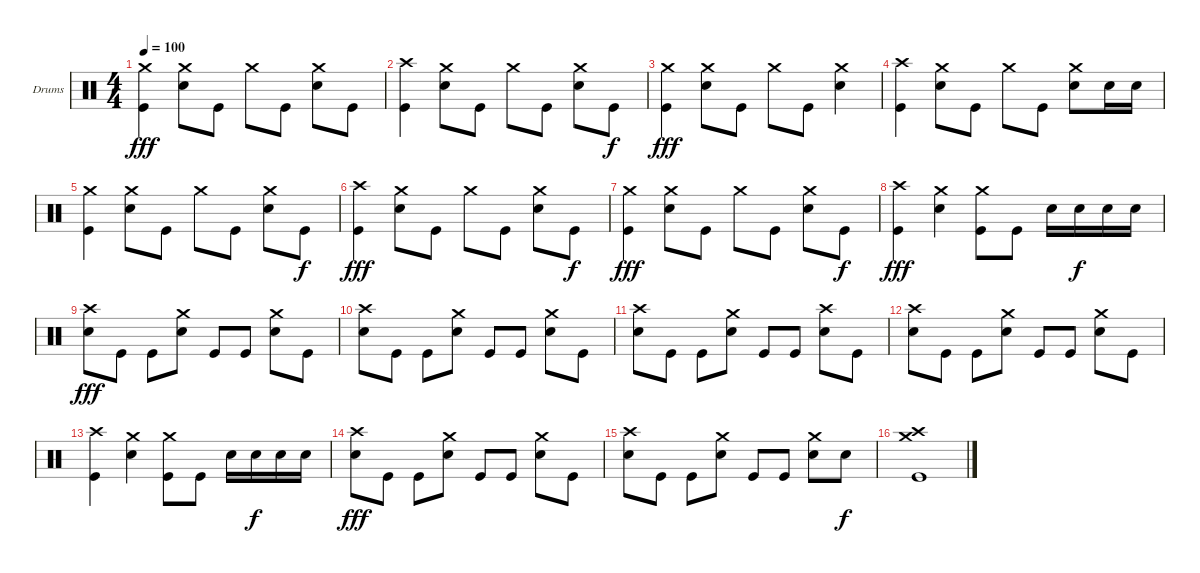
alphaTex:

\defaultSystemsLayout 4
\bracketExtendMode groupsimilarinstruments
\firstSystemTrackNameOrientation horizontal
\otherSystemsTrackNameOrientation horizontal
\track ("Drumkit" "Drums") {instrument percussion}
\staff {score}
\articulation defaults
\ts (4 4)
\tempo 100
\clef neutral
\ks c
("Crash medium (hit)" "Kick (hit)").4{dy fff} ("Crash medium (hit)" "Snare (hit) 2").8 "Kick (hit)".8 "Crash medium (hit)".8 "Kick (hit)".8 ("Crash medium (hit)" "Snare (hit) 2").8 "Kick (hit)".8 |
("Crash high (hit)" "Kick (hit)").4 ("Crash medium (hit)" "Snare (hit) 2").8 "Kick (hit)".8 "Crash medium (hit)".8 "Kick (hit)".8 ("Crash medium (hit)" "Snare (hit) 2").8 "Kick (hit)".8{dy f} |
("Crash medium (hit)" "Kick (hit)").4{dy fff} ("Crash medium (hit)" "Snare (hit) 2").8 "Kick (hit)".8 "Crash medium (hit)".8 "Kick (hit)".8 ("Crash medium (hit)" "Snare (hit) 2").4 |
("Crash high (hit)" "Kick (hit)").4 ("Crash medium (hit)" "Snare (hit) 2").8 "Kick (hit)".8 "Crash medium (hit)".8 "Kick (hit)".8 ("Crash medium (hit)" "Snare (hit) 2").8 "Snare (hit) 2".16 "Snare (hit) 2".16 |
("Crash medium (hit)" "Kick (hit)").4 ("Crash medium (hit)" "Snare (hit) 2").8 "Kick (hit)".8 "Crash medium (hit)".8 "Kick (hit)".8 ("Crash medium (hit)" "Snare (hit) 2").8 "Kick (hit)".8{dy f} |
("Crash high (hit)" "Kick (hit)").4{dy fff} ("Crash medium (hit)" "Snare (hit) 2").8 "Kick (hit)".8 "Crash medium (hit)".8 "Kick (hit)".8 ("Crash medium (hit)" "Snare (hit) 2").8 "Kick (hit)".8{dy f} |
("Crash medium (hit)" "Kick (hit)").4{dy fff} ("Crash medium (hit)" "Snare (hit) 2").8 "Kick (hit)".8 "Crash medium (hit)".8 "Kick (hit)".8 ("Crash medium (hit)" "Snare (hit) 2").8 "Kick (hit)".8{dy f} |
("Crash high (hit)" "Kick (hit)").4{dy fff} ("Crash medium (hit)" "Snare (hit) 2").4 ("Crash medium (hit)" "Kick (hit)").8 "Kick (hit)".8 "Snare (hit) 2".16 "Snare (hit) 2".16{dy f} "Snare (hit) 2".16 "Snare (hit) 2".16 |
("Crash high (hit)" "Snare (hit) 2").8{dy fff} "Kick (hit)".8 "Kick (hit)".8 ("Crash medium (hit)" "Snare (hit) 2").8 "Kick (hit)".8 "Kick (hit)".8 ("Crash medium (hit)" "Snare (hit) 2").8 "Kick (hit)".8 |
("Crash high (hit)" "Snare (hit) 2").8 "Kick (hit)".8 "Kick (hit)".8 ("Crash medium (hit)" "Snare (hit) 2").8 "Kick (hit)".8 "Kick (hit)".8 ("Crash medium (hit)" "Snare (hit) 2").8 "Kick (hit)".8 |
("Crash high (hit)" "Snare (hit) 2").8 "Kick (hit)".8 "Kick (hit)".8 ("Crash medium (hit)" "Snare (hit) 2").8 "Kick (hit)".8 "Kick (hit)".8 ("Crash high (hit)" "Snare (hit) 2").8 "Kick (hit)".8 |
("Crash high (hit)" "Snare (hit) 2").8 "Kick (hit)".8 "Kick (hit)".8 ("Crash medium (hit)" "Snare (hit) 2").8 "Kick (hit)".8 "Kick (hit)".8 ("Crash medium (hit)" "Snare (hit) 2").8 "Kick (hit)".8 |
("Crash high (hit)" "Kick (hit)").4 ("Crash medium (hit)" "Snare (hit) 2").4 ("Crash medium (hit)" "Kick (hit)").8 "Kick (hit)".8 "Snare (hit) 2".16 "Snare (hit) 2".16{dy f} "Snare (hit) 2".16 "Snare (hit) 2".16 |
("Crash high (hit)" "Snare (hit) 2").8{dy fff} "Kick (hit)".8 "Kick (hit)".8 ("Crash medium (hit)" "Snare (hit) 2").8 "Kick (hit)".8 "Kick (hit)".8 ("Crash medium (hit)" "Snare (hit) 2").8 "Kick (hit)".8 |
("Crash high (hit)" "Snare (hit) 2").8 "Kick (hit)".8 "Kick (hit)".8 ("Crash medium (hit)" "Snare (hit) 2").8 "Kick (hit)".8 "Kick (hit)".8 ("Crash medium (hit)" "Snare (hit) 2").8 "Snare (hit) 2".8{dy f} |
("Crash high (hit)" "Crash medium (hit)" "Kick (hit)").1
